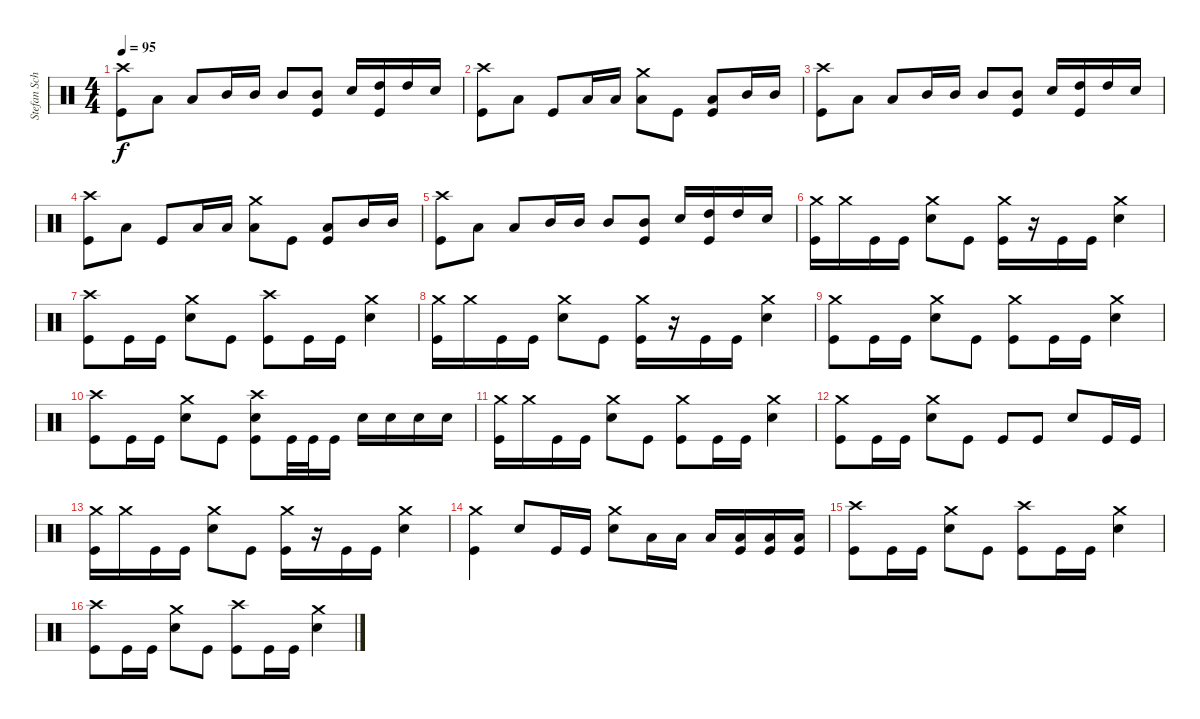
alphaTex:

\track ("Stefan Schwarzmann - -drums" "Stefan Sch") {instrument percussion}
\staff {score}
\articulation defaults
\ts (4 4)
\tempo 95
\clef neutral
\ks c
("Crash high (hit)" "Kick (hit)").8{dy f} "Low Tom (hit)".8 "Low Tom (hit)".8 "Mid Tom (hit)".16 "Mid Tom (hit)".16 "Mid Tom (hit)".8 ("Mid Tom (hit)" "Kick (hit)").8 "Electric Snare (hit)".16 ("High Tom (hit)" "Kick (hit)").16 "High Tom (hit)".16 "Electric Snare (hit)".16 |
("Crash high (hit)" "Kick (hit)").8 "Low Tom (hit)".8 "Kick (hit)".8 "Low Tom (hit)".16 "Low Tom (hit)".16 ("Crash medium (hit)" "Low Tom (hit)").8 "Kick (hit)".8 ("Low Tom (hit)" "Kick (hit)").8 "Mid Tom (hit)".16 "Mid Tom (hit)".16 |
("Crash high (hit)" "Kick (hit)").8 "Low Tom (hit)".8 "Low Tom (hit)".8 "Mid Tom (hit)".16 "Mid Tom (hit)".16 "Mid Tom (hit)".8 ("Mid Tom (hit)" "Kick (hit)").8 "Electric Snare (hit)".16 ("High Tom (hit)" "Kick (hit)").16 "High Tom (hit)".16 "Electric Snare (hit)".16 |
("Crash high (hit)" "Kick (hit)").8 "Low Tom (hit)".8 "Kick (hit)".8 "Low Tom (hit)".16 "Low Tom (hit)".16 ("Crash medium (hit)" "Low Tom (hit)").8 "Kick (hit)".8 ("Low Tom (hit)" "Kick (hit)").8 "Mid Tom (hit)".16 "Mid Tom (hit)".16 |
("Crash high (hit)" "Kick (hit)").8 "Low Tom (hit)".8 "Low Tom (hit)".8 "Mid Tom (hit)".16 "Mid Tom (hit)".16 "Mid Tom (hit)".8 ("Mid Tom (hit)" "Kick (hit)").8 "Electric Snare (hit)".16 ("High Tom (hit)" "Kick (hit)").16 "High Tom (hit)".16 "Electric Snare (hit)".16 |
("Crash medium (hit)" "Kick (hit)").16 "Crash medium (hit)".16 "Kick (hit)".16 "Kick (hit)".16 ("Crash medium (hit)" "Electric Snare (hit)").8 "Kick (hit)".8 ("Crash medium (hit)" "Kick (hit)").16 r.16 "Kick (hit)".16 "Kick (hit)".16 ("Crash medium (hit)" "Electric Snare (hit)").4 |
("Crash high (hit)" "Kick (hit)").8 "Kick (hit)".16 "Kick (hit)".16 ("Crash medium (hit)" "Electric Snare (hit)").8 "Kick (hit)".8 ("Crash high (hit)" "Kick (hit)").8 "Kick (hit)".16 "Kick (hit)".16 ("Crash medium (hit)" "Electric Snare (hit)").4 |
("Crash medium (hit)" "Kick (hit)").16 "Crash medium (hit)".16 "Kick (hit)".16 "Kick (hit)".16 ("Crash medium (hit)" "Electric Snare (hit)").8 "Kick (hit)".8 ("Crash medium (hit)" "Kick (hit)").16 r.16 "Kick (hit)".16 "Kick (hit)".16 ("Crash medium (hit)" "Electric Snare (hit)").4 |
("Crash medium (hit)" "Kick (hit)").8 "Kick (hit)".16 "Kick (hit)".16 ("Crash medium (hit)" "Electric Snare (hit)").8 "Kick (hit)".8 ("Crash medium (hit)" "Kick (hit)").8 "Kick (hit)".16 "Kick (hit)".16 ("Crash medium (hit)" "Electric Snare (hit)").4 |
("Crash high (hit)" "Kick (hit)").8 "Kick (hit)".16 "Kick (hit)".16 ("Crash medium (hit)" "Electric Snare (hit)").8 "Kick (hit)".8 ("Crash high (hit)" "Electric Snare (hit)" "Kick (hit)").8 "Kick (hit)".32 "Kick (hit)".32 "Kick (hit)".16 "Electric Snare (hit)".16 "Electric Snare (hit)".16 "Electric Snare (hit)".16 "Electric Snare (hit)".16 |
("Crash medium (hit)" "Kick (hit)").16 "Crash medium (hit)".16 "Kick (hit)".16 "Kick (hit)".16 ("Crash medium (hit)" "Electric Snare (hit)").8 "Kick (hit)".8 ("Crash medium (hit)" "Kick (hit)").8 "Kick (hit)".16 "Kick (hit)".16 ("Crash medium (hit)" "Electric Snare (hit)").4 |
("Crash medium (hit)" "Kick (hit)").8 "Kick (hit)".16 "Kick (hit)".16 ("Crash medium (hit)" "Electric Snare (hit)").8 "Kick (hit)".8 "Kick (hit)".8 "Kick (hit)".8 "Electric Snare (hit)".8 "Kick (hit)".16 "Kick (hit)".16 |
("Crash medium (hit)" "Kick (hit)").16 "Crash medium (hit)".16 "Kick (hit)".16 "Kick (hit)".16 ("Crash medium (hit)" "Electric Snare (hit)").8 "Kick (hit)".8 ("Crash medium (hit)" "Kick (hit)").16 r.16 "Kick (hit)".16 "Kick (hit)".16 ("Crash medium (hit)" "Electric Snare (hit)").4 |
("Crash medium (hit)" "Kick (hit)").4 "Electric Snare (hit)".8 "Kick (hit)".16 "Kick (hit)".16 ("Crash medium (hit)" "Electric Snare (hit)").8 "Low Tom (hit)".16 "Low Tom (hit)".16 "Low Tom (hit)".16 ("Low Tom (hit)" "Kick (hit)").16 ("Low Tom (hit)" "Kick (hit)").16 ("Low Tom (hit)" "Kick (hit)").16 |
("Crash high (hit)" "Kick (hit)").8 "Kick (hit)".16 "Kick (hit)".16 ("Crash medium (hit)" "Electric Snare (hit)").8 "Kick (hit)".8 ("Crash high (hit)" "Kick (hit)").8 "Kick (hit)".16 "Kick (hit)".16 ("Crash medium (hit)" "Electric Snare (hit)").4 |
("Crash high (hit)" "Kick (hit)").8 "Kick (hit)".16 "Kick (hit)".16 ("Crash medium (hit)" "Electric Snare (hit)").8 "Kick (hit)".8 ("Crash high (hit)" "Kick (hit)").8 "Kick (hit)".16 "Kick (hit)".16 ("Crash medium (hit)" "Electric Snare (hit)").4
